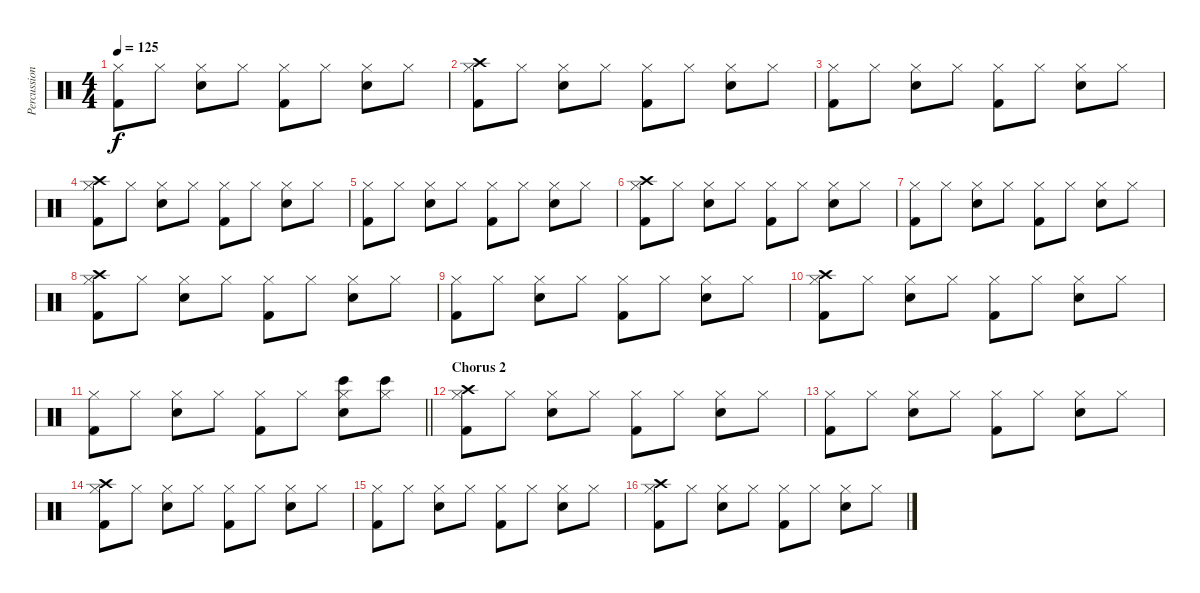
\track ("Percussion" "Percussion") {instrument percussion}
\staff {score}
\articulation defaults
\ts (4 4)
\tempo 125
\clef neutral
\ks c
("Hi-Hat (closed)" "Kick (hit) 2").8{dy f} "Hi-Hat (closed)".8 ("Hi-Hat (closed)" "Snare (hit) 2").8 "Hi-Hat (closed)".8 ("Hi-Hat (closed)" "Kick (hit) 2").8 "Hi-Hat (closed)".8 ("Hi-Hat (closed)" "Snare (hit) 2").8 "Hi-Hat (closed)".8 |
("Crash high (hit)" "Hi-Hat (closed)" "Kick (hit) 2").8 "Hi-Hat (closed)".8 ("Hi-Hat (closed)" "Snare (hit) 2").8 "Hi-Hat (closed)".8 ("Hi-Hat (closed)" "Kick (hit) 2").8 "Hi-Hat (closed)".8 ("Hi-Hat (closed)" "Snare (hit) 2").8 "Hi-Hat (closed)".8 |
("Hi-Hat (closed)" "Kick (hit) 2").8 "Hi-Hat (closed)".8 ("Hi-Hat (closed)" "Snare (hit) 2").8 "Hi-Hat (closed)".8 ("Hi-Hat (closed)" "Kick (hit) 2").8 "Hi-Hat (closed)".8 ("Hi-Hat (closed)" "Snare (hit) 2").8 "Hi-Hat (closed)".8 |
("Crash high (hit)" "Hi-Hat (closed)" "Kick (hit) 2").8 "Hi-Hat (closed)".8 ("Hi-Hat (closed)" "Snare (hit) 2").8 "Hi-Hat (closed)".8 ("Hi-Hat (closed)" "Kick (hit) 2").8 "Hi-Hat (closed)".8 ("Hi-Hat (closed)" "Snare (hit) 2").8 "Hi-Hat (closed)".8 |
("Hi-Hat (closed)" "Kick (hit) 2").8 "Hi-Hat (closed)".8 ("Hi-Hat (closed)" "Snare (hit) 2").8 "Hi-Hat (closed)".8 ("Hi-Hat (closed)" "Kick (hit) 2").8 "Hi-Hat (closed)".8 ("Hi-Hat (closed)" "Snare (hit) 2").8 "Hi-Hat (closed)".8 |
("Crash high (hit)" "Hi-Hat (closed)" "Kick (hit) 2").8 "Hi-Hat (closed)".8 ("Hi-Hat (closed)" "Snare (hit) 2").8 "Hi-Hat (closed)".8 ("Hi-Hat (closed)" "Kick (hit) 2").8 "Hi-Hat (closed)".8 ("Hi-Hat (closed)" "Snare (hit) 2").8 "Hi-Hat (closed)".8 |
("Hi-Hat (closed)" "Kick (hit) 2").8 "Hi-Hat (closed)".8 ("Hi-Hat (closed)" "Snare (hit) 2").8 "Hi-Hat (closed)".8 ("Hi-Hat (closed)" "Kick (hit) 2").8 "Hi-Hat (closed)".8 ("Hi-Hat (closed)" "Snare (hit) 2").8 "Hi-Hat (closed)".8 |
("Crash high (hit)" "Hi-Hat (closed)" "Kick (hit) 2").8 "Hi-Hat (closed)".8 ("Hi-Hat (closed)" "Snare (hit) 2").8 "Hi-Hat (closed)".8 ("Hi-Hat (closed)" "Kick (hit) 2").8 "Hi-Hat (closed)".8 ("Hi-Hat (closed)" "Snare (hit) 2").8 "Hi-Hat (closed)".8 |
("Hi-Hat (closed)" "Kick (hit) 2").8 "Hi-Hat (closed)".8 ("Hi-Hat (closed)" "Snare (hit) 2").8 "Hi-Hat (closed)".8 ("Hi-Hat (closed)" "Kick (hit) 2").8 "Hi-Hat (closed)".8 ("Hi-Hat (closed)" "Snare (hit) 2").8 "Hi-Hat (closed)".8 |
("Crash high (hit)" "Hi-Hat (closed)" "Kick (hit) 2").8 "Hi-Hat (closed)".8 ("Hi-Hat (closed)" "Snare (hit) 2").8 "Hi-Hat (closed)".8 ("Hi-Hat (closed)" "Kick (hit) 2").8 "Hi-Hat (closed)".8 ("Hi-Hat (closed)" "Snare (hit) 2").8 "Hi-Hat (closed)".8 |
\barLineRight lightlight
("Hi-Hat (closed)" "Kick (hit) 2").8 "Hi-Hat (closed)".8 ("Hi-Hat (closed)" "Snare (hit) 2").8 "Hi-Hat (closed)".8 ("Hi-Hat (closed)" "Kick (hit) 2").8 "Hi-Hat (closed)".8 ("Bongo High (hit)" "Hi-Hat (closed)" "Snare (hit) 2").8 ("Bongo High (hit)" "Hi-Hat (closed)").8 |
\section ("" "Chorus 2")
("Crash high (hit)" "Hi-Hat (closed)" "Kick (hit) 2").8 "Hi-Hat (closed)".8 ("Hi-Hat (closed)" "Snare (hit) 2").8 "Hi-Hat (closed)".8 ("Hi-Hat (closed)" "Kick (hit) 2").8 "Hi-Hat (closed)".8 ("Hi-Hat (closed)" "Snare (hit) 2").8 "Hi-Hat (closed)".8 |
("Hi-Hat (closed)" "Kick (hit) 2").8 "Hi-Hat (closed)".8 ("Hi-Hat (closed)" "Snare (hit) 2").8 "Hi-Hat (closed)".8 ("Hi-Hat (closed)" "Kick (hit) 2").8 "Hi-Hat (closed)".8 ("Hi-Hat (closed)" "Snare (hit) 2").8 "Hi-Hat (closed)".8 |
("Crash high (hit)" "Hi-Hat (closed)" "Kick (hit) 2").8 "Hi-Hat (closed)".8 ("Hi-Hat (closed)" "Snare (hit) 2").8 "Hi-Hat (closed)".8 ("Hi-Hat (closed)" "Kick (hit) 2").8 "Hi-Hat (closed)".8 ("Hi-Hat (closed)" "Snare (hit) 2").8 "Hi-Hat (closed)".8 |
("Hi-Hat (closed)" "Kick (hit) 2").8 "Hi-Hat (closed)".8 ("Hi-Hat (closed)" "Snare (hit) 2").8 "Hi-Hat (closed)".8 ("Hi-Hat (closed)" "Kick (hit) 2").8 "Hi-Hat (closed)".8 ("Hi-Hat (closed)" "Snare (hit) 2").8 "Hi-Hat (closed)".8 |
("Crash high (hit)" "Hi-Hat (closed)" "Kick (hit) 2").8 "Hi-Hat (closed)".8 ("Hi-Hat (closed)" "Snare (hit) 2").8 "Hi-Hat (closed)".8 ("Hi-Hat (closed)" "Kick (hit) 2").8 "Hi-Hat (closed)".8 ("Hi-Hat (closed)" "Snare (hit) 2").8 "Hi-Hat (closed)".8
